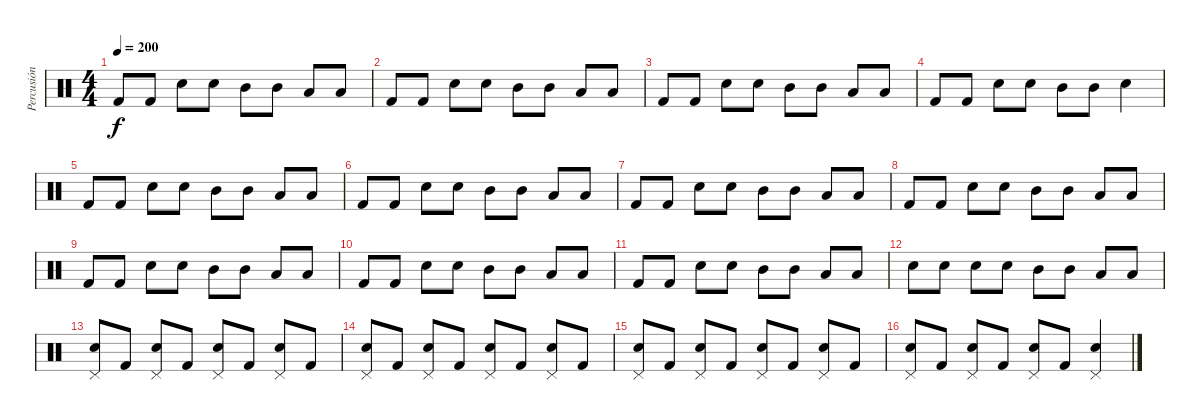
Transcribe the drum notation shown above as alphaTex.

\track ("Percusión" "Percusión") {instrument percussion}
\staff {score}
\articulation defaults
\ts (4 4)
\tempo 200
\clef neutral
\ks c "Kick (hit) 2".8{dy f} "Kick (hit) 2".8 "Electric Snare (hit)".8 "Electric Snare (hit)".8 "Mid Tom (hit)".8 "Mid Tom (hit)".8 "Low Tom (hit)".8 "Low Tom (hit)".8
|
"Kick (hit) 2".8 "Kick (hit) 2".8 "Electric Snare (hit)".8 "Electric Snare (hit)".8 "Mid Tom (hit)".8 "Mid Tom (hit)".8 "Low Tom (hit)".8 "Low Tom (hit)".8 |
"Kick (hit) 2".8 "Kick (hit) 2".8 "Electric Snare (hit)".8 "Electric Snare (hit)".8 "Mid Tom (hit)".8 "Mid Tom (hit)".8 "Low Tom (hit)".8 "Low Tom (hit)".8 |
"Kick (hit) 2".8 "Kick (hit) 2".8 "Electric Snare (hit)".8 "Electric Snare (hit)".8 "Mid Tom (hit)".8 "Mid Tom (hit)".8 "Electric Snare (hit)".4 |
"Kick (hit) 2".8 "Kick (hit) 2".8 "Electric Snare (hit)".8 "Electric Snare (hit)".8 "Mid Tom (hit)".8 "Mid Tom (hit)".8 "Low Tom (hit)".8 "Low Tom (hit)".8 |
"Kick (hit) 2".8 "Kick (hit) 2".8 "Electric Snare (hit)".8 "Electric Snare (hit)".8 "Mid Tom (hit)".8 "Mid Tom (hit)".8 "Low Tom (hit)".8 "Low Tom (hit)".8 |
"Kick (hit) 2".8 "Kick (hit) 2".8 "Electric Snare (hit)".8 "Electric Snare (hit)".8 "Mid Tom (hit)".8 "Mid Tom (hit)".8 "Low Tom (hit)".8 "Low Tom (hit)".8 |
"Kick (hit) 2".8 "Kick (hit) 2".8 "Electric Snare (hit)".8 "Electric Snare (hit)".8 "Mid Tom (hit)".8 "Mid Tom (hit)".8 "Low Tom (hit)".8 "Low Tom (hit)".8 |
"Kick (hit) 2".8 "Kick (hit) 2".8 "Electric Snare (hit)".8 "Electric Snare (hit)".8 "Mid Tom (hit)".8 "Mid Tom (hit)".8 "Low Tom (hit)".8 "Low Tom (hit)".8 |
"Kick (hit) 2".8 "Kick (hit) 2".8 "Electric Snare (hit)".8 "Electric Snare (hit)".8 "Mid Tom (hit)".8 "Mid Tom (hit)".8 "Low Tom (hit)".8 "Low Tom (hit)".8 |
"Kick (hit) 2".8 "Kick (hit) 2".8 "Electric Snare (hit)".8 "Electric Snare (hit)".8 "Mid Tom (hit)".8 "Mid Tom (hit)".8 "Low Tom (hit)".8 "Low Tom (hit)".8 |
"Electric Snare (hit)".8 "Electric Snare (hit)".8 "Electric Snare (hit)".8 "Electric Snare (hit)".8 "Mid Tom (hit)".8 "Mid Tom (hit)".8 "Low Tom (hit)".8 "Low Tom (hit)".8 |
("Electric Snare (hit)" "Pedal Hi-Hat (hit)").8 "Kick (hit) 2".8 ("Electric Snare (hit)" "Pedal Hi-Hat (hit)").8 "Kick (hit) 2".8 ("Electric Snare (hit)" "Pedal Hi-Hat (hit)").8 "Kick (hit) 2".8 ("Electric Snare (hit)" "Pedal Hi-Hat (hit)").8 "Kick (hit) 2".8 |
("Electric Snare (hit)" "Pedal Hi-Hat (hit)").8 "Kick (hit) 2".8 ("Electric Snare (hit)" "Pedal Hi-Hat (hit)").8 "Kick (hit) 2".8 ("Electric Snare (hit)" "Pedal Hi-Hat (hit)").8 "Kick (hit) 2".8 ("Electric Snare (hit)" "Pedal Hi-Hat (hit)").8 "Kick (hit) 2".8 |
("Electric Snare (hit)" "Pedal Hi-Hat (hit)").8 "Kick (hit) 2".8 ("Electric Snare (hit)" "Pedal Hi-Hat (hit)").8 "Kick (hit) 2".8 ("Electric Snare (hit)" "Pedal Hi-Hat (hit)").8 "Kick (hit) 2".8 ("Electric Snare (hit)" "Pedal Hi-Hat (hit)").8 "Kick (hit) 2".8 |
("Electric Snare (hit)" "Pedal Hi-Hat (hit)").8 "Kick (hit) 2".8 ("Electric Snare (hit)" "Pedal Hi-Hat (hit)").8 "Kick (hit) 2".8 ("Electric Snare (hit)" "Pedal Hi-Hat (hit)").8 "Kick (hit) 2".8 ("Electric Snare (hit)" "Pedal Hi-Hat (hit)").4
